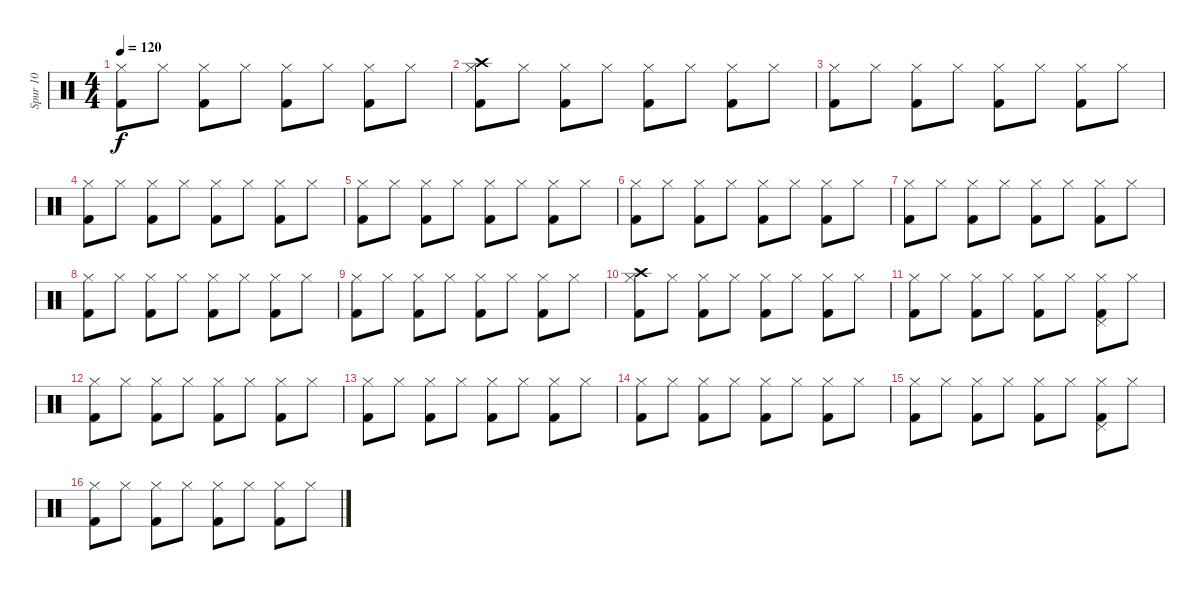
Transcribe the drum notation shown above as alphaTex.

\track ("Spur 10" "Spur 10") {instrument percussion}
\staff {score}
\articulation defaults
\ts (4 4)
\tempo 120
\clef neutral
\ks c
("Hi-Hat (closed)" "Kick (hit) 2").8{dy f} "Hi-Hat (closed)".8 ("Hi-Hat (closed)" "Kick (hit) 2").8 "Hi-Hat (closed)".8 ("Hi-Hat (closed)" "Kick (hit) 2").8 "Hi-Hat (closed)".8 ("Hi-Hat (closed)" "Kick (hit) 2").8 "Hi-Hat (closed)".8 |
("Hi-Hat (closed)" "Kick (hit) 2" "Crash high (hit)").8 "Hi-Hat (closed)".8 ("Hi-Hat (closed)" "Kick (hit) 2").8 "Hi-Hat (closed)".8 ("Hi-Hat (closed)" "Kick (hit) 2").8 "Hi-Hat (closed)".8 ("Hi-Hat (closed)" "Kick (hit) 2").8 "Hi-Hat (closed)".8 |
("Hi-Hat (closed)" "Kick (hit) 2").8 "Hi-Hat (closed)".8 ("Hi-Hat (closed)" "Kick (hit) 2").8 "Hi-Hat (closed)".8 ("Hi-Hat (closed)" "Kick (hit) 2").8 "Hi-Hat (closed)".8 ("Hi-Hat (closed)" "Kick (hit) 2").8 "Hi-Hat (closed)".8 |
("Hi-Hat (closed)" "Kick (hit) 2").8 "Hi-Hat (closed)".8 ("Hi-Hat (closed)" "Kick (hit) 2").8 "Hi-Hat (closed)".8 ("Hi-Hat (closed)" "Kick (hit) 2").8 "Hi-Hat (closed)".8 ("Hi-Hat (closed)" "Kick (hit) 2").8 "Hi-Hat (closed)".8 |
("Hi-Hat (closed)" "Kick (hit) 2").8 "Hi-Hat (closed)".8 ("Hi-Hat (closed)" "Kick (hit) 2").8 "Hi-Hat (closed)".8 ("Hi-Hat (closed)" "Kick (hit) 2").8 "Hi-Hat (closed)".8 ("Hi-Hat (closed)" "Kick (hit) 2").8 "Hi-Hat (closed)".8 |
("Hi-Hat (closed)" "Kick (hit) 2").8 "Hi-Hat (closed)".8 ("Hi-Hat (closed)" "Kick (hit) 2").8 "Hi-Hat (closed)".8 ("Hi-Hat (closed)" "Kick (hit) 2").8 "Hi-Hat (closed)".8 ("Hi-Hat (closed)" "Kick (hit) 2").8 "Hi-Hat (closed)".8 |
("Hi-Hat (closed)" "Kick (hit) 2").8 "Hi-Hat (closed)".8 ("Hi-Hat (closed)" "Kick (hit) 2").8 "Hi-Hat (closed)".8 ("Hi-Hat (closed)" "Kick (hit) 2").8 "Hi-Hat (closed)".8 ("Hi-Hat (closed)" "Kick (hit) 2").8 "Hi-Hat (closed)".8 |
("Hi-Hat (closed)" "Kick (hit) 2").8 "Hi-Hat (closed)".8 ("Hi-Hat (closed)" "Kick (hit) 2").8 "Hi-Hat (closed)".8 ("Hi-Hat (closed)" "Kick (hit) 2").8 "Hi-Hat (closed)".8 ("Hi-Hat (closed)" "Kick (hit) 2").8 "Hi-Hat (closed)".8 |
("Hi-Hat (closed)" "Kick (hit) 2").8 "Hi-Hat (closed)".8 ("Hi-Hat (closed)" "Kick (hit) 2").8 "Hi-Hat (closed)".8 ("Hi-Hat (closed)" "Kick (hit) 2").8 "Hi-Hat (closed)".8 ("Hi-Hat (closed)" "Kick (hit) 2").8 "Hi-Hat (closed)".8 |
("Kick (hit) 2" "Crash high (hit)" "Hi-Hat (closed)").8 "Hi-Hat (closed)".8 ("Kick (hit) 2" "Hi-Hat (closed)").8 "Hi-Hat (closed)".8 ("Kick (hit) 2" "Hi-Hat (closed)").8 "Hi-Hat (closed)".8 ("Kick (hit) 2" "Hi-Hat (closed)").8 "Hi-Hat (closed)".8 |
("Kick (hit) 2" "Hi-Hat (closed)").8 "Hi-Hat (closed)".8 ("Kick (hit) 2" "Hi-Hat (closed)").8 "Hi-Hat (closed)".8 ("Kick (hit) 2" "Hi-Hat (closed)").8 "Hi-Hat (closed)".8 ("Kick (hit) 2" "Pedal Hi-Hat (hit)" "Hi-Hat (closed)").8 "Hi-Hat (closed)".8 |
("Kick (hit) 2" "Hi-Hat (closed)").8 "Hi-Hat (closed)".8 ("Kick (hit) 2" "Hi-Hat (closed)").8 "Hi-Hat (closed)".8 ("Kick (hit) 2" "Hi-Hat (closed)").8 "Hi-Hat (closed)".8 ("Kick (hit) 2" "Hi-Hat (closed)").8 "Hi-Hat (closed)".8 |
("Kick (hit) 2" "Hi-Hat (closed)").8 "Hi-Hat (closed)".8 ("Kick (hit) 2" "Hi-Hat (closed)").8 "Hi-Hat (closed)".8 ("Kick (hit) 2" "Hi-Hat (closed)").8 "Hi-Hat (closed)".8 ("Kick (hit) 2" "Hi-Hat (closed)").8 "Hi-Hat (closed)".8 |
("Kick (hit) 2" "Hi-Hat (closed)").8 "Hi-Hat (closed)".8 ("Kick (hit) 2" "Hi-Hat (closed)").8 "Hi-Hat (closed)".8 ("Kick (hit) 2" "Hi-Hat (closed)").8 "Hi-Hat (closed)".8 ("Kick (hit) 2" "Hi-Hat (closed)").8 "Hi-Hat (closed)".8 |
("Kick (hit) 2" "Hi-Hat (closed)").8 "Hi-Hat (closed)".8 ("Kick (hit) 2" "Hi-Hat (closed)").8 "Hi-Hat (closed)".8 ("Kick (hit) 2" "Hi-Hat (closed)").8 "Hi-Hat (closed)".8 ("Kick (hit) 2" "Pedal Hi-Hat (hit)" "Hi-Hat (closed)").8 "Hi-Hat (closed)".8 |
("Kick (hit) 2" "Hi-Hat (closed)").8 "Hi-Hat (closed)".8 ("Kick (hit) 2" "Hi-Hat (closed)").8 "Hi-Hat (closed)".8 ("Kick (hit) 2" "Hi-Hat (closed)").8 "Hi-Hat (closed)".8 ("Kick (hit) 2" "Hi-Hat (closed)").8 "Hi-Hat (closed)".8
